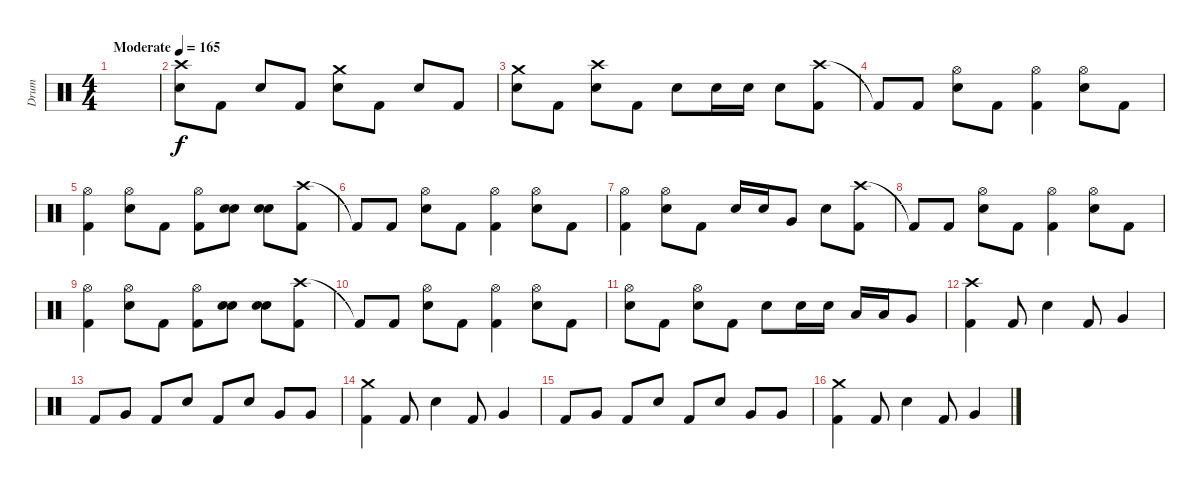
\track ("Drum" "Drum") {instrument percussion}
\staff {score}
\articulation defaults
\ts (4 4)
\tempo (165 "Moderate")
\clef neutral
\ks c
|
("Crash high (hit)" "Electric Snare (hit)").8 "Kick (hit) 2".8 "Electric Snare (hit)".8 "Kick (hit) 2".8 ("Crash medium (hit)" "Electric Snare (hit)").8 "Kick (hit) 2".8 "Electric Snare (hit)".8 "Kick (hit) 2".8 |
("Crash medium (hit)" "Electric Snare (hit)").8 "Kick (hit) 2".8 ("Crash high (hit)" "Electric Snare (hit)").8 "Kick (hit) 2".8 "Electric Snare (hit)".8 "Electric Snare (hit)".16 "Electric Snare (hit)".16 "Electric Snare (hit)".8 ("Crash high (hit)" "Kick (hit) 2").8 |
"Kick (hit) 2"{t}.8 "Kick (hit) 2".8 ("Hi-Hat (open)" "Electric Snare (hit)").8 "Kick (hit) 2".8 ("Hi-Hat (open)" "Kick (hit) 2").4 ("Hi-Hat (open)" "Electric Snare (hit)").8 "Kick (hit) 2".8 |
("Hi-Hat (open)" "Kick (hit) 2").4 ("Hi-Hat (open)" "Electric Snare (hit)").8 "Kick (hit) 2".8 ("Hi-Hat (open)" "Kick (hit) 2").8 ("Electric Snare (hit)" "Electric Snare (hit)").8 ("Electric Snare (hit)" "Electric Snare (hit)").8 ("Crash high (hit)" "Kick (hit) 2").8 |
"Kick (hit) 2"{t}.8 "Kick (hit) 2".8 ("Hi-Hat (open)" "Electric Snare (hit)").8 "Kick (hit) 2".8 ("Hi-Hat (open)" "Kick (hit) 2").4 ("Hi-Hat (open)" "Electric Snare (hit)").8 "Kick (hit) 2".8 |
("Hi-Hat (open)" "Kick (hit) 2").4 ("Hi-Hat (open)" "Electric Snare (hit)").8 "Kick (hit) 2".8 "Electric Snare (hit)".16 "Electric Snare (hit)".16 "Very Low Tom (hit)".8 "Electric Snare (hit)".8 ("Crash high (hit)" "Kick (hit) 2").8 |
"Kick (hit) 2"{t}.8 "Kick (hit) 2".8 ("Hi-Hat (open)" "Electric Snare (hit)").8 "Kick (hit) 2".8 ("Hi-Hat (open)" "Kick (hit) 2").4 ("Hi-Hat (open)" "Electric Snare (hit)").8 "Kick (hit) 2".8 |
("Hi-Hat (open)" "Kick (hit) 2").4 ("Hi-Hat (open)" "Electric Snare (hit)").8 "Kick (hit) 2".8 ("Hi-Hat (open)" "Kick (hit) 2").8 ("Electric Snare (hit)" "Electric Snare (hit)").8 ("Electric Snare (hit)" "Electric Snare (hit)").8 ("Crash high (hit)" "Kick (hit) 2").8 |
"Kick (hit) 2"{t}.8 "Kick (hit) 2".8 ("Hi-Hat (open)" "Electric Snare (hit)").8 "Kick (hit) 2".8 ("Hi-Hat (open)" "Kick (hit) 2").4 ("Hi-Hat (open)" "Electric Snare (hit)").8 "Kick (hit) 2".8 |
("Hi-Hat (open)" "Electric Snare (hit)").8 "Kick (hit) 2".8 ("Hi-Hat (open)" "Electric Snare (hit)").8 "Kick (hit) 2".8 "Electric Snare (hit)".8 "Electric Snare (hit)".16 "Electric Snare (hit)".16 "Low Tom (hit)".16 "Low Tom (hit)".16 "Very Low Tom (hit)".8 |
("Crash high (hit)" "Kick (hit) 2").4 "Kick (hit) 2".8 "Electric Snare (hit)".4 "Kick (hit) 2".8 "Very Low Tom (hit)".4 |
"Kick (hit) 2".8 "Very Low Tom (hit)".8 "Kick (hit) 2".8 "Electric Snare (hit)".8 "Kick (hit) 2".8 "Electric Snare (hit)".8 "Very Low Tom (hit)".8 "Very Low Tom (hit)".8 |
("Crash medium (hit)" "Kick (hit) 2").4 "Kick (hit) 2".8 "Electric Snare (hit)".4 "Kick (hit) 2".8 "Very Low Tom (hit)".4 |
"Kick (hit) 2".8 "Very Low Tom (hit)".8 "Kick (hit) 2".8 "Electric Snare (hit)".8 "Kick (hit) 2".8 "Electric Snare (hit)".8 "Very Low Tom (hit)".8 "Very Low Tom (hit)".8 |
("Crash medium (hit)" "Kick (hit) 2").4 "Kick (hit) 2".8 "Electric Snare (hit)".4 "Kick (hit) 2".8 "Very Low Tom (hit)".4
